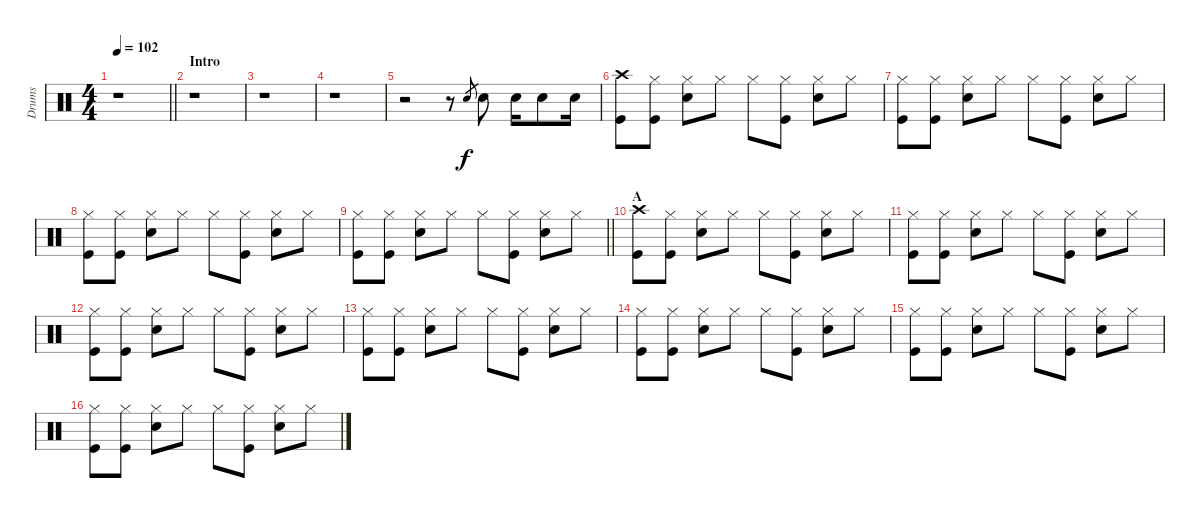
\track ("Drums" "Drums") {instrument percussion}
\staff {score}
\articulation defaults
\ts (4 4)
\tempo 102
\clef neutral
\barLineRight lightlight
\ks c
r.1{dy f} |
\section ("" "Intro")
r.1 |
r.1 |
r.1 |
r.2 r.8 "Electric Snare (hit)".8{gr} "Electric Snare (hit)".8 "Electric Snare (hit)".16 "Electric Snare (hit)".8 "Electric Snare (hit)".16 |
("Crash high (hit)" "Kick (hit)").8 ("Hi-Hat (closed)" "Kick (hit)").8 ("Hi-Hat (closed)" "Electric Snare (hit)").8 "Hi-Hat (closed)".8 "Hi-Hat (closed)".8 ("Hi-Hat (closed)" "Kick (hit)").8 ("Hi-Hat (closed)" "Electric Snare (hit)").8 "Hi-Hat (closed)".8 |
("Hi-Hat (closed)" "Kick (hit)").8 ("Hi-Hat (closed)" "Kick (hit)").8 ("Hi-Hat (closed)" "Electric Snare (hit)").8 "Hi-Hat (closed)".8 "Hi-Hat (closed)".8 ("Hi-Hat (closed)" "Kick (hit)").8 ("Hi-Hat (closed)" "Electric Snare (hit)").8 "Hi-Hat (closed)".8 |
("Hi-Hat (closed)" "Kick (hit)").8 ("Hi-Hat (closed)" "Kick (hit)").8 ("Hi-Hat (closed)" "Electric Snare (hit)").8 "Hi-Hat (closed)".8 "Hi-Hat (closed)".8 ("Hi-Hat (closed)" "Kick (hit)").8 ("Hi-Hat (closed)" "Electric Snare (hit)").8 "Hi-Hat (closed)".8 |
\barLineRight lightlight
("Hi-Hat (closed)" "Kick (hit)").8 ("Hi-Hat (closed)" "Kick (hit)").8 ("Hi-Hat (closed)" "Electric Snare (hit)").8 "Hi-Hat (closed)".8 "Hi-Hat (closed)".8 ("Hi-Hat (closed)" "Kick (hit)").8 ("Hi-Hat (closed)" "Electric Snare (hit)").8 "Hi-Hat (closed)".8 |
\section ("" "A")
("Crash high (hit)" "Kick (hit)").8 ("Hi-Hat (closed)" "Kick (hit)").8 ("Hi-Hat (closed)" "Electric Snare (hit)").8 "Hi-Hat (closed)".8 "Hi-Hat (closed)".8 ("Hi-Hat (closed)" "Kick (hit)").8 ("Hi-Hat (closed)" "Electric Snare (hit)").8 "Hi-Hat (closed)".8 |
("Hi-Hat (closed)" "Kick (hit)").8 ("Hi-Hat (closed)" "Kick (hit)").8 ("Hi-Hat (closed)" "Electric Snare (hit)").8 "Hi-Hat (closed)".8 "Hi-Hat (closed)".8 ("Hi-Hat (closed)" "Kick (hit)").8 ("Hi-Hat (closed)" "Electric Snare (hit)").8 "Hi-Hat (closed)".8 |
("Hi-Hat (closed)" "Kick (hit)").8 ("Hi-Hat (closed)" "Kick (hit)").8 ("Hi-Hat (closed)" "Electric Snare (hit)").8 "Hi-Hat (closed)".8 "Hi-Hat (closed)".8 ("Hi-Hat (closed)" "Kick (hit)").8 ("Hi-Hat (closed)" "Electric Snare (hit)").8 "Hi-Hat (closed)".8 |
("Hi-Hat (closed)" "Kick (hit)").8 ("Hi-Hat (closed)" "Kick (hit)").8 ("Hi-Hat (closed)" "Electric Snare (hit)").8 "Hi-Hat (closed)".8 "Hi-Hat (closed)".8 ("Hi-Hat (closed)" "Kick (hit)").8 ("Hi-Hat (closed)" "Electric Snare (hit)").8 "Hi-Hat (closed)".8 |
("Hi-Hat (closed)" "Kick (hit)").8 ("Hi-Hat (closed)" "Kick (hit)").8 ("Hi-Hat (closed)" "Electric Snare (hit)").8 "Hi-Hat (closed)".8 "Hi-Hat (closed)".8 ("Hi-Hat (closed)" "Kick (hit)").8 ("Hi-Hat (closed)" "Electric Snare (hit)").8 "Hi-Hat (closed)".8 |
("Hi-Hat (closed)" "Kick (hit)").8 ("Hi-Hat (closed)" "Kick (hit)").8 ("Hi-Hat (closed)" "Electric Snare (hit)").8 "Hi-Hat (closed)".8 "Hi-Hat (closed)".8 ("Hi-Hat (closed)" "Kick (hit)").8 ("Hi-Hat (closed)" "Electric Snare (hit)").8 "Hi-Hat (closed)".8 |
("Hi-Hat (closed)" "Kick (hit)").8 ("Hi-Hat (closed)" "Kick (hit)").8 ("Hi-Hat (closed)" "Electric Snare (hit)").8 "Hi-Hat (closed)".8 "Hi-Hat (closed)".8 ("Hi-Hat (closed)" "Kick (hit)").8 ("Hi-Hat (closed)" "Electric Snare (hit)").8 "Hi-Hat (closed)".8
